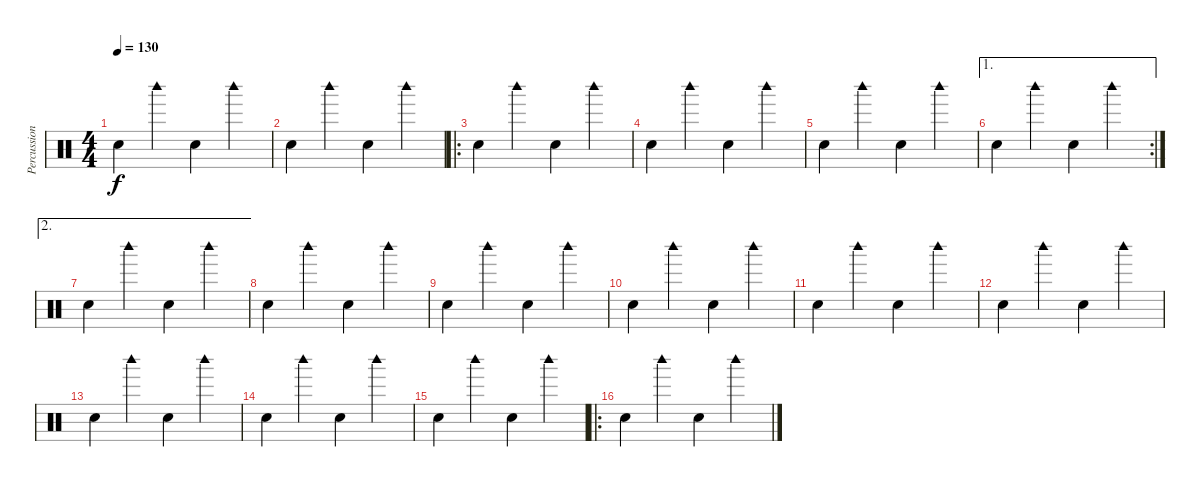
\track ("Percussions" "Percussion") {instrument percussion}
\staff {score}
\articulation defaults
\ts (4 4)
\tempo 130
\clef neutral
\ks c "Hand Clap (hit)".4{dy f} "Woodblock high (hit)".4 "Hand Clap (hit)".4 "Woodblock high (hit)".4
|
"Hand Clap (hit)".4 "Woodblock high (hit)".4 "Hand Clap (hit)".4 "Woodblock high (hit)".4 |
\ro "Hand Clap (hit)".4 "Woodblock high (hit)".4 "Hand Clap (hit)".4 "Woodblock high (hit)".4
|
"Hand Clap (hit)".4 "Woodblock high (hit)".4 "Hand Clap (hit)".4 "Woodblock high (hit)".4 |
"Hand Clap (hit)".4 "Woodblock high (hit)".4 "Hand Clap (hit)".4 "Woodblock high (hit)".4 |
\ae 1
\rc 2 "Hand Clap (hit)".4 "Woodblock high (hit)".4 "Hand Clap (hit)".4 "Woodblock high (hit)".4
|
\ae 2 "Hand Clap (hit)".4 "Woodblock high (hit)".4 "Hand Clap (hit)".4 "Woodblock high (hit)".4
|
"Hand Clap (hit)".4 "Woodblock high (hit)".4 "Hand Clap (hit)".4 "Woodblock high (hit)".4 |
"Hand Clap (hit)".4 "Woodblock high (hit)".4 "Hand Clap (hit)".4 "Woodblock high (hit)".4 |
"Hand Clap (hit)".4 "Woodblock high (hit)".4 "Hand Clap (hit)".4 "Woodblock high (hit)".4 |
"Hand Clap (hit)".4 "Woodblock high (hit)".4 "Hand Clap (hit)".4 "Woodblock high (hit)".4 |
"Hand Clap (hit)".4 "Woodblock high (hit)".4 "Hand Clap (hit)".4 "Woodblock high (hit)".4 |
"Hand Clap (hit)".4 "Woodblock high (hit)".4 "Hand Clap (hit)".4 "Woodblock high (hit)".4 |
"Hand Clap (hit)".4 "Woodblock high (hit)".4 "Hand Clap (hit)".4 "Woodblock high (hit)".4 |
"Hand Clap (hit)".4 "Woodblock high (hit)".4 "Hand Clap (hit)".4 "Woodblock high (hit)".4 |
\ro "Hand Clap (hit)".4 "Woodblock high (hit)".4 "Hand Clap (hit)".4 "Woodblock high (hit)".4
